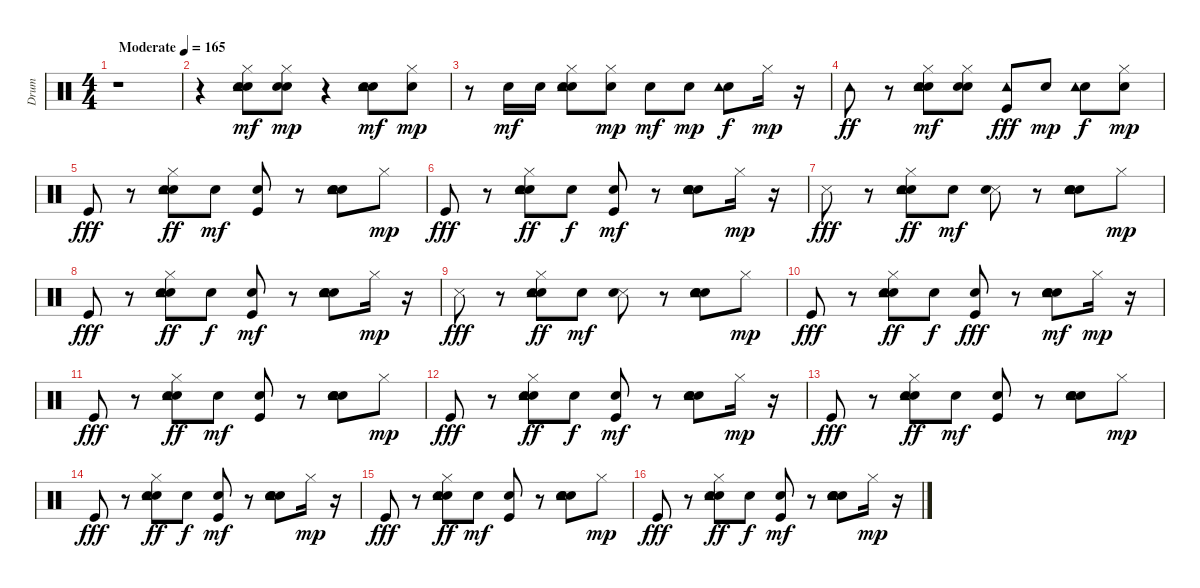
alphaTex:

\track ("Drum" "Drum") {instrument percussion}
\staff {score}
\articulation defaults
\ts (4 4)
\tempo (165 "Moderate")
\clef neutral
\ks c
r.1{dy mf} |
r.4 ("Hand Clap (hit)" "Hi-Hat (closed)" "Tambourine (hit)" "Snare (hit) 2").8 ("Hand Clap (hit)" "Snare (hit) 2" "Hi-Hat (closed)").8{dy mp} r.4 ("Hand Clap (hit)" "Tambourine (hit)" "Snare (hit) 2").8{dy mf} ("Hi-Hat (closed)" "Snare (hit) 2").8{dy mp} |
r.8 "Snare (hit) 2".16{dy mf} "Snare (hit) 2".16 ("Hand Clap (hit)" "Hi-Hat (closed)" "Tambourine (hit)" "Snare (hit) 2").8 ("Hand Clap (hit)" "Hi-Hat (closed)").8{dy mp} "Snare (hit) 2".8{dy mf} "Snare (hit) 2".8{dy mp} ("Hand Clap (hit)" "Tambourine (hit)").8{dy f} "Hi-Hat (closed)".16{dy mp} r.16 |
"Tambourine (hit)".8{dy ff} r.8 ("Hi-Hat (closed)" "Hand Clap (hit)" "Tambourine (hit)" "Snare (hit) 2").8{dy mf} ("Hand Clap (hit)" "Hi-Hat (closed)" "Snare (hit) 2").8 ("Tambourine (hit)" "Kick (hit)").8{dy fff} "Snare (hit) 2".8{dy mp} ("Hand Clap (hit)" "Tambourine (hit)").8{dy f} ("Hi-Hat (closed)" "Snare (hit) 2").8{dy mp} |
"Kick (hit)".8{dy fff} r.8 ("Hand Clap (hit)" "Hi-Hat (closed)" "Tambourine (hit)" "Electric Snare (hit)").8{dy ff} "Hand Clap (hit)".8{dy mf} ("Kick (hit)" "Snare (hit) 2").8 r.8 ("Hand Clap (hit)" "Tambourine (hit)" "Electric Snare (hit)" "Snare (hit) 2").8 "Hi-Hat (closed)".8{dy mp} |
"Kick (hit)".8{dy fff} r.8 ("Hand Clap (hit)" "Hi-Hat (closed)" "Tambourine (hit)" "Electric Snare (hit)").8{dy ff} "Hand Clap (hit)".8{dy f} ("Kick (hit)" "Snare (hit) 2").8{dy mf} r.8 ("Hand Clap (hit)" "Tambourine (hit)" "Electric Snare (hit)" "Snare (hit) 2").8 "Hi-Hat (closed)".16{dy mp} r.16 |
"Metronome (hit)".8{dy fff} r.8 ("Hand Clap (hit)" "Hi-Hat (closed)" "Tambourine (hit)" "Electric Snare (hit)").8{dy ff} "Hand Clap (hit)".8{dy mf} ("Metronome (hit)" "Snare (hit) 2").8 r.8 ("Hand Clap (hit)" "Tambourine (hit)" "Electric Snare (hit)" "Snare (hit) 2").8 "Hi-Hat (closed)".8{dy mp} |
"Kick (hit)".8{dy fff} r.8 ("Hand Clap (hit)" "Hi-Hat (closed)" "Tambourine (hit)" "Electric Snare (hit)").8{dy ff} "Hand Clap (hit)".8{dy f} ("Kick (hit)" "Snare (hit) 2").8{dy mf} r.8 ("Hand Clap (hit)" "Tambourine (hit)" "Electric Snare (hit)" "Snare (hit) 2").8 "Hi-Hat (closed)".16{dy mp} r.16 |
"Metronome (hit)".8{dy fff} r.8 ("Hand Clap (hit)" "Hi-Hat (closed)" "Tambourine (hit)" "Electric Snare (hit)").8{dy ff} "Hand Clap (hit)".8{dy mf} ("Metronome (hit)" "Snare (hit) 2").8 r.8 ("Hand Clap (hit)" "Tambourine (hit)" "Electric Snare (hit)" "Snare (hit) 2").8 "Hi-Hat (closed)".8{dy mp} |
"Kick (hit)".8{dy fff} r.8 ("Hand Clap (hit)" "Hi-Hat (closed)" "Tambourine (hit)" "Electric Snare (hit)").8{dy ff} "Hand Clap (hit)".8{dy f} ("Snare (hit) 2" "Kick (hit)").8{dy fff} r.8 ("Hand Clap (hit)" "Tambourine (hit)" "Electric Snare (hit)" "Snare (hit) 2").8{dy mf} "Hi-Hat (closed)".16{dy mp} r.16 |
"Kick (hit)".8{dy fff} r.8 ("Hand Clap (hit)" "Hi-Hat (closed)" "Tambourine (hit)" "Electric Snare (hit)").8{dy ff} "Hand Clap (hit)".8{dy mf} ("Kick (hit)" "Snare (hit) 2").8 r.8 ("Hand Clap (hit)" "Tambourine (hit)" "Electric Snare (hit)" "Snare (hit) 2").8 "Hi-Hat (closed)".8{dy mp} |
"Kick (hit)".8{dy fff} r.8 ("Hand Clap (hit)" "Hi-Hat (closed)" "Tambourine (hit)" "Electric Snare (hit)").8{dy ff} "Hand Clap (hit)".8{dy f} ("Kick (hit)" "Snare (hit) 2").8{dy mf} r.8 ("Hand Clap (hit)" "Tambourine (hit)" "Electric Snare (hit)" "Snare (hit) 2").8 "Hi-Hat (closed)".16{dy mp} r.16 |
"Kick (hit)".8{dy fff} r.8 ("Hand Clap (hit)" "Hi-Hat (closed)" "Tambourine (hit)" "Electric Snare (hit)").8{dy ff} "Hand Clap (hit)".8{dy mf} ("Kick (hit)" "Snare (hit) 2").8 r.8 ("Hand Clap (hit)" "Tambourine (hit)" "Electric Snare (hit)" "Snare (hit) 2").8 "Hi-Hat (closed)".8{dy mp} |
"Kick (hit)".8{dy fff} r.8 ("Hand Clap (hit)" "Hi-Hat (closed)" "Tambourine (hit)" "Electric Snare (hit)").8{dy ff} "Hand Clap (hit)".8{dy f} ("Kick (hit)" "Snare (hit) 2").8{dy mf} r.8 ("Hand Clap (hit)" "Tambourine (hit)" "Electric Snare (hit)" "Snare (hit) 2").8 "Hi-Hat (closed)".16{dy mp} r.16 |
"Kick (hit)".8{dy fff} r.8 ("Hand Clap (hit)" "Hi-Hat (closed)" "Tambourine (hit)" "Electric Snare (hit)").8{dy ff} "Hand Clap (hit)".8{dy mf} ("Kick (hit)" "Snare (hit) 2").8 r.8 ("Hand Clap (hit)" "Tambourine (hit)" "Electric Snare (hit)" "Snare (hit) 2").8 "Hi-Hat (closed)".8{dy mp} |
"Kick (hit)".8{dy fff} r.8 ("Hand Clap (hit)" "Hi-Hat (closed)" "Tambourine (hit)" "Electric Snare (hit)").8{dy ff} "Hand Clap (hit)".8{dy f} ("Kick (hit)" "Snare (hit) 2").8{dy mf} r.8 ("Hand Clap (hit)" "Tambourine (hit)" "Electric Snare (hit)" "Snare (hit) 2").8 "Hi-Hat (closed)".16{dy mp} r.16
